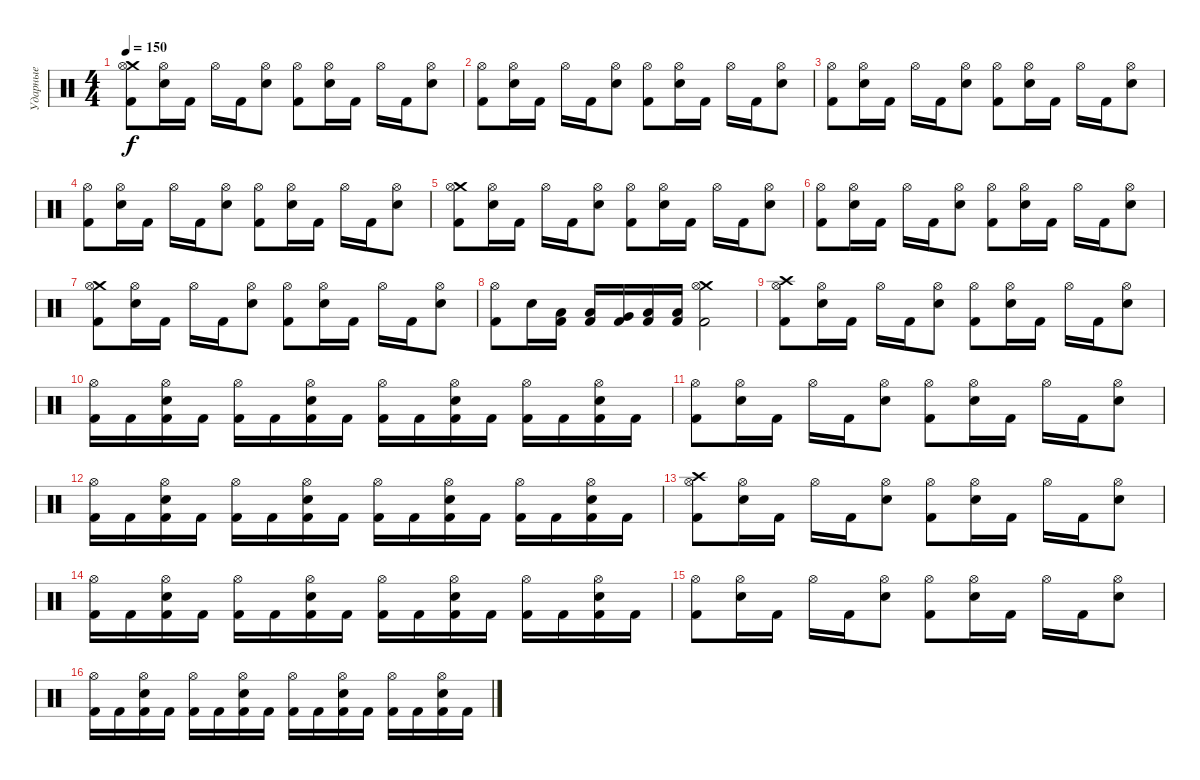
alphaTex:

\track ("Ударные" "Ударные") {instrument percussion}
\staff {score}
\articulation defaults
\ts (4 4)
\tempo 150
\clef neutral
\ks c
("Crash medium (hit)" "Hi-Hat (open)" "Kick (hit) 2").8{dy f} ("Hi-Hat (open)" "Electric Snare (hit)").16 "Kick (hit) 2".16 "Hi-Hat (open)".16 "Kick (hit) 2".16 ("Hi-Hat (open)" "Electric Snare (hit)").8 ("Hi-Hat (open)" "Kick (hit) 2").8 ("Hi-Hat (open)" "Electric Snare (hit)").16 "Kick (hit) 2".16 "Hi-Hat (open)".16 "Kick (hit) 2".16 ("Hi-Hat (open)" "Electric Snare (hit)").8 |
("Hi-Hat (open)" "Kick (hit) 2").8 ("Hi-Hat (open)" "Electric Snare (hit)").16 "Kick (hit) 2".16 "Hi-Hat (open)".16 "Kick (hit) 2".16 ("Hi-Hat (open)" "Electric Snare (hit)").8 ("Hi-Hat (open)" "Kick (hit) 2").8 ("Hi-Hat (open)" "Electric Snare (hit)").16 "Kick (hit) 2".16 "Hi-Hat (open)".16 "Kick (hit) 2".16 ("Hi-Hat (open)" "Electric Snare (hit)").8 |
("Hi-Hat (open)" "Kick (hit) 2").8 ("Hi-Hat (open)" "Electric Snare (hit)").16 "Kick (hit) 2".16 "Hi-Hat (open)".16 "Kick (hit) 2".16 ("Hi-Hat (open)" "Electric Snare (hit)").8 ("Hi-Hat (open)" "Kick (hit) 2").8 ("Hi-Hat (open)" "Electric Snare (hit)").16 "Kick (hit) 2".16 "Hi-Hat (open)".16 "Kick (hit) 2".16 ("Hi-Hat (open)" "Electric Snare (hit)").8 |
("Hi-Hat (open)" "Kick (hit) 2").8 ("Hi-Hat (open)" "Electric Snare (hit)").16 "Kick (hit) 2".16 "Hi-Hat (open)".16 "Kick (hit) 2".16 ("Hi-Hat (open)" "Electric Snare (hit)").8 ("Hi-Hat (open)" "Kick (hit) 2").8 ("Hi-Hat (open)" "Electric Snare (hit)").16 "Kick (hit) 2".16 "Hi-Hat (open)".16 "Kick (hit) 2".16 ("Hi-Hat (open)" "Electric Snare (hit)").8 |
("Crash medium (hit)" "Hi-Hat (open)" "Kick (hit) 2").8 ("Hi-Hat (open)" "Electric Snare (hit)").16 "Kick (hit) 2".16 "Hi-Hat (open)".16 "Kick (hit) 2".16 ("Hi-Hat (open)" "Electric Snare (hit)").8 ("Hi-Hat (open)" "Kick (hit) 2").8 ("Hi-Hat (open)" "Electric Snare (hit)").16 "Kick (hit) 2".16 "Hi-Hat (open)".16 "Kick (hit) 2".16 ("Hi-Hat (open)" "Electric Snare (hit)").8 |
("Hi-Hat (open)" "Kick (hit) 2").8 ("Hi-Hat (open)" "Electric Snare (hit)").16 "Kick (hit) 2".16 "Hi-Hat (open)".16 "Kick (hit) 2".16 ("Hi-Hat (open)" "Electric Snare (hit)").8 ("Hi-Hat (open)" "Kick (hit) 2").8 ("Hi-Hat (open)" "Electric Snare (hit)").16 "Kick (hit) 2".16 "Hi-Hat (open)".16 "Kick (hit) 2".16 ("Hi-Hat (open)" "Electric Snare (hit)").8 |
("Crash medium (hit)" "Hi-Hat (open)" "Kick (hit) 2").8 ("Hi-Hat (open)" "Electric Snare (hit)").16 "Kick (hit) 2".16 "Hi-Hat (open)".16 "Kick (hit) 2".16 ("Hi-Hat (open)" "Electric Snare (hit)").8 ("Hi-Hat (open)" "Kick (hit) 2").8 ("Hi-Hat (open)" "Electric Snare (hit)").16 "Kick (hit) 2".16 "Hi-Hat (open)".16 "Kick (hit) 2".16 ("Hi-Hat (open)" "Electric Snare (hit)").8 |
("Hi-Hat (open)" "Kick (hit) 2").8 "Electric Snare (hit)".16 ("Low Tom (hit)" "Kick (hit) 2").16 ("Low Tom (hit)" "Kick (hit) 2").16 ("Very Low Tom (hit)" "Kick (hit) 2").16 ("Low Floor Tom (hit)" "Kick (hit) 2").16 ("Low Floor Tom (hit)" "Kick (hit) 2").16 ("Crash medium (hit)" "Hi-Hat (open)" "Kick (hit) 2").2 |
("Crash high (hit)" "Hi-Hat (open)" "Kick (hit) 2").8 ("Hi-Hat (open)" "Electric Snare (hit)").16 "Kick (hit) 2".16 "Hi-Hat (open)".16 "Kick (hit) 2".16 ("Hi-Hat (open)" "Electric Snare (hit)").8 ("Hi-Hat (open)" "Kick (hit) 2").8 ("Hi-Hat (open)" "Electric Snare (hit)").16 "Kick (hit) 2".16 "Hi-Hat (open)".16 "Kick (hit) 2".16 ("Hi-Hat (open)" "Electric Snare (hit)").8 |
("Hi-Hat (open)" "Kick (hit) 2").16 "Kick (hit) 2".16 ("Hi-Hat (open)" "Kick (hit) 2" "Electric Snare (hit)").16 "Kick (hit) 2".16 ("Hi-Hat (open)" "Kick (hit) 2").16 "Kick (hit) 2".16 ("Hi-Hat (open)" "Kick (hit) 2" "Electric Snare (hit)").16 "Kick (hit) 2".16 ("Hi-Hat (open)" "Kick (hit) 2").16 "Kick (hit) 2".16 ("Hi-Hat (open)" "Kick (hit) 2" "Electric Snare (hit)").16 "Kick (hit) 2".16 ("Hi-Hat (open)" "Kick (hit) 2").16 "Kick (hit) 2".16 ("Hi-Hat (open)" "Kick (hit) 2" "Electric Snare (hit)").16 "Kick (hit) 2".16 |
("Hi-Hat (open)" "Kick (hit) 2").8 ("Hi-Hat (open)" "Electric Snare (hit)").16 "Kick (hit) 2".16 "Hi-Hat (open)".16 "Kick (hit) 2".16 ("Hi-Hat (open)" "Electric Snare (hit)").8 ("Hi-Hat (open)" "Kick (hit) 2").8 ("Hi-Hat (open)" "Electric Snare (hit)").16 "Kick (hit) 2".16 "Hi-Hat (open)".16 "Kick (hit) 2".16 ("Hi-Hat (open)" "Electric Snare (hit)").8 |
("Hi-Hat (open)" "Kick (hit) 2").16 "Kick (hit) 2".16 ("Hi-Hat (open)" "Kick (hit) 2" "Electric Snare (hit)").16 "Kick (hit) 2".16 ("Hi-Hat (open)" "Kick (hit) 2").16 "Kick (hit) 2".16 ("Hi-Hat (open)" "Kick (hit) 2" "Electric Snare (hit)").16 "Kick (hit) 2".16 ("Hi-Hat (open)" "Kick (hit) 2").16 "Kick (hit) 2".16 ("Hi-Hat (open)" "Kick (hit) 2" "Electric Snare (hit)").16 "Kick (hit) 2".16 ("Hi-Hat (open)" "Kick (hit) 2").16 "Kick (hit) 2".16 ("Hi-Hat (open)" "Kick (hit) 2" "Electric Snare (hit)").16 "Kick (hit) 2".16 |
("Crash high (hit)" "Hi-Hat (open)" "Kick (hit) 2").8 ("Hi-Hat (open)" "Electric Snare (hit)").16 "Kick (hit) 2".16 "Hi-Hat (open)".16 "Kick (hit) 2".16 ("Hi-Hat (open)" "Electric Snare (hit)").8 ("Hi-Hat (open)" "Kick (hit) 2").8 ("Hi-Hat (open)" "Electric Snare (hit)").16 "Kick (hit) 2".16 "Hi-Hat (open)".16 "Kick (hit) 2".16 ("Hi-Hat (open)" "Electric Snare (hit)").8 |
("Hi-Hat (open)" "Kick (hit) 2").16 "Kick (hit) 2".16 ("Hi-Hat (open)" "Kick (hit) 2" "Electric Snare (hit)").16 "Kick (hit) 2".16 ("Hi-Hat (open)" "Kick (hit) 2").16 "Kick (hit) 2".16 ("Hi-Hat (open)" "Kick (hit) 2" "Electric Snare (hit)").16 "Kick (hit) 2".16 ("Hi-Hat (open)" "Kick (hit) 2").16 "Kick (hit) 2".16 ("Hi-Hat (open)" "Kick (hit) 2" "Electric Snare (hit)").16 "Kick (hit) 2".16 ("Hi-Hat (open)" "Kick (hit) 2").16 "Kick (hit) 2".16 ("Hi-Hat (open)" "Kick (hit) 2" "Electric Snare (hit)").16 "Kick (hit) 2".16 |
("Hi-Hat (open)" "Kick (hit) 2").8 ("Hi-Hat (open)" "Electric Snare (hit)").16 "Kick (hit) 2".16 "Hi-Hat (open)".16 "Kick (hit) 2".16 ("Hi-Hat (open)" "Electric Snare (hit)").8 ("Hi-Hat (open)" "Kick (hit) 2").8 ("Hi-Hat (open)" "Electric Snare (hit)").16 "Kick (hit) 2".16 "Hi-Hat (open)".16 "Kick (hit) 2".16 ("Hi-Hat (open)" "Electric Snare (hit)").8 |
("Hi-Hat (open)" "Kick (hit) 2").16 "Kick (hit) 2".16 ("Hi-Hat (open)" "Kick (hit) 2" "Electric Snare (hit)").16 "Kick (hit) 2".16 ("Hi-Hat (open)" "Kick (hit) 2").16 "Kick (hit) 2".16 ("Hi-Hat (open)" "Kick (hit) 2" "Electric Snare (hit)").16 "Kick (hit) 2".16 ("Hi-Hat (open)" "Kick (hit) 2").16 "Kick (hit) 2".16 ("Hi-Hat (open)" "Kick (hit) 2" "Electric Snare (hit)").16 "Kick (hit) 2".16 ("Hi-Hat (open)" "Kick (hit) 2").16 "Kick (hit) 2".16 ("Hi-Hat (open)" "Kick (hit) 2" "Electric Snare (hit)").16 "Kick (hit) 2".16
